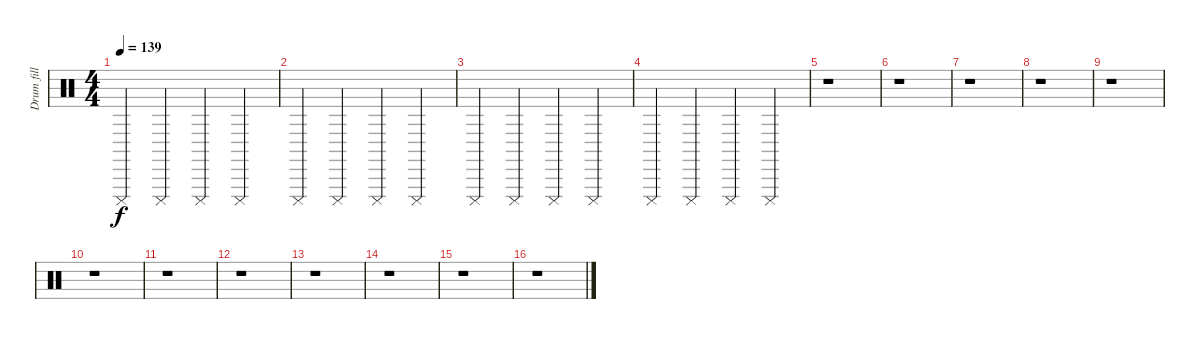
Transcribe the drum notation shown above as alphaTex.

\track ("Drum fill" "Drum fill") {instrument percussion}
\staff {score}
\articulation defaults
\ts (4 4)
\tempo 139
\clef neutral
\ks c "Cuica (mute)".4{dy f} "Cuica (mute)".4 "Cuica (mute)".4 "Cuica (mute)".4
|
"Cuica (mute)".4 "Cuica (mute)".4 "Cuica (mute)".4 "Cuica (mute)".4 |
"Cuica (mute)".4 "Cuica (mute)".4 "Cuica (mute)".4 "Cuica (mute)".4 |
"Cuica (mute)".4 "Cuica (mute)".4 "Cuica (mute)".4 "Cuica (mute)".4 |
r.1 |
r.1 |
r.1 |
r.1 |
r.1 |
r.1 |
r.1 |
r.1 |
r.1 |
r.1 |
r.1 |
r.1
